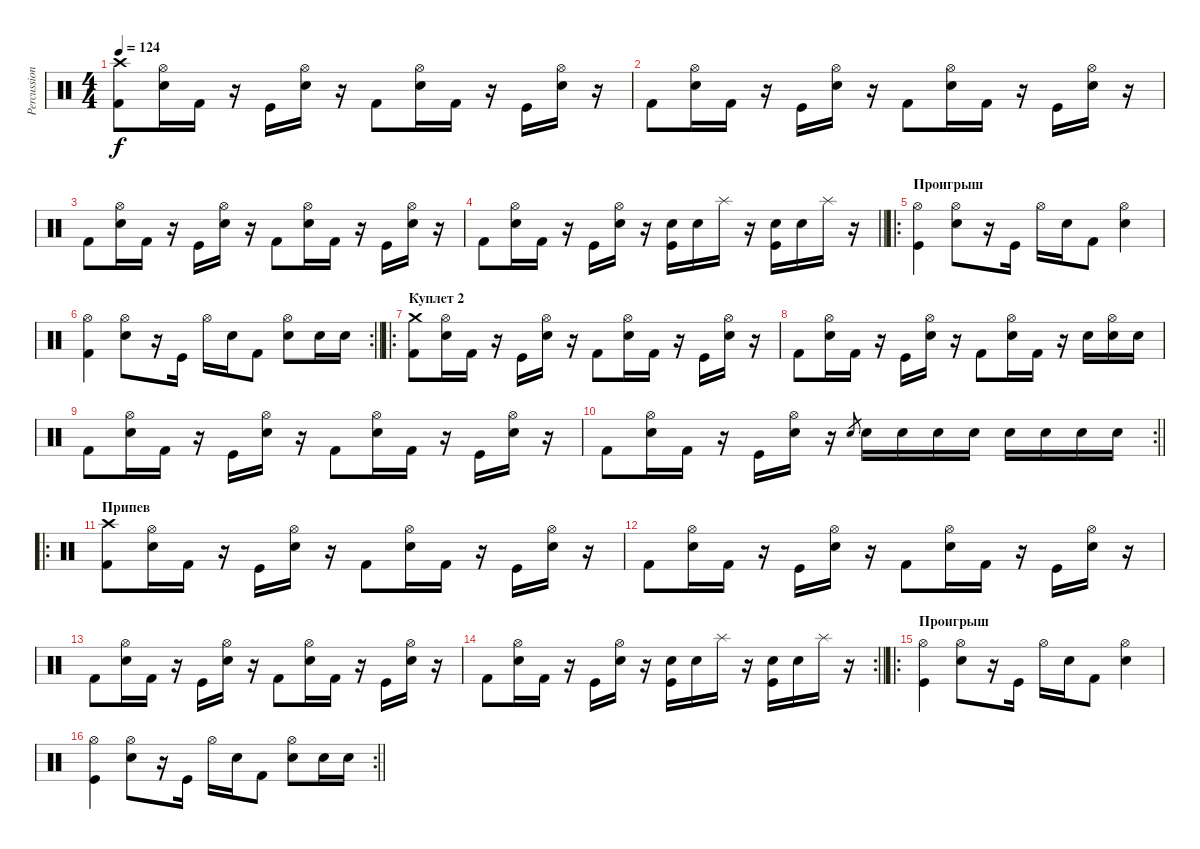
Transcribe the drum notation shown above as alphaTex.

\track ("Percussion" "Percussion") {instrument percussion}
\staff {score}
\articulation defaults
\ts (4 4)
\tempo 124
\clef neutral
\ks c
("Crash high (hit)" "Kick (hit) 2").8{dy f} ("Hi-Hat (open)" "Snare (hit) 2").16 "Kick (hit) 2".16 r.16 "Kick (hit)".16 ("Hi-Hat (open)" "Snare (hit) 2").16 r.16 "Kick (hit) 2".8 ("Hi-Hat (open)" "Snare (hit) 2").16 "Kick (hit) 2".16 r.16 "Kick (hit)".16 ("Hi-Hat (open)" "Snare (hit) 2").16 r.16 |
"Kick (hit) 2".8 ("Hi-Hat (open)" "Snare (hit) 2").16 "Kick (hit) 2".16 r.16 "Kick (hit)".16 ("Hi-Hat (open)" "Snare (hit) 2").16 r.16 "Kick (hit) 2".8 ("Hi-Hat (open)" "Snare (hit) 2").16 "Kick (hit) 2".16 r.16 "Kick (hit)".16 ("Hi-Hat (open)" "Snare (hit) 2").16 r.16 |
"Kick (hit) 2".8 ("Hi-Hat (open)" "Snare (hit) 2").16 "Kick (hit) 2".16 r.16 "Kick (hit)".16 ("Hi-Hat (open)" "Snare (hit) 2").16 r.16 "Kick (hit) 2".8 ("Hi-Hat (open)" "Snare (hit) 2").16 "Kick (hit) 2".16 r.16 "Kick (hit)".16 ("Hi-Hat (open)" "Snare (hit) 2").16 r.16 |
\barLineRight lightlight "Kick (hit) 2".8
("Hi-Hat (open)" "Snare (hit) 2").16 "Kick (hit) 2".16 r.16 "Kick (hit)".16 ("Hi-Hat (open)" "Snare (hit) 2").16 r.16 ("Electric Snare (hit)" "Kick (hit)").16 "Electric Snare (hit)".16 "Splash (hit)".16 r.16 ("Snare (hit) 2" "Kick (hit)").16 "Snare (hit) 2".16 "Splash (hit)".16 r.16 |
\ro
\section ("" "Проигрыш")
("Hi-Hat (open)" "Kick (hit)").4 ("Hi-Hat (open)" "Snare (hit) 2").8 r.16 "Kick (hit)".16 "Hi-Hat (open)".16 "Snare (hit) 2".16 "Kick (hit) 2".8 ("Hi-Hat (open)" "Snare (hit) 2").4 |
\rc 2
\barLineRight lightlight
("Hi-Hat (open)" "Kick (hit) 2").4 ("Hi-Hat (open)" "Snare (hit) 2").8 r.16 "Kick (hit)".16 "Hi-Hat (open)".16 "Snare (hit) 2".16 "Kick (hit) 2".8 ("Hi-Hat (open)" "Snare (hit) 2").8 "Snare (hit) 2".16 "Snare (hit) 2".16 |
\ro
\section ("" "Куплет 2")
("Crash medium (hit)" "Kick (hit) 2").8 ("Hi-Hat (open)" "Snare (hit) 2").16 "Kick (hit) 2".16 r.16 "Kick (hit)".16 ("Hi-Hat (open)" "Snare (hit) 2").16 r.16 "Kick (hit) 2".8 ("Hi-Hat (open)" "Snare (hit) 2").16 "Kick (hit) 2".16 r.16 "Kick (hit)".16 ("Hi-Hat (open)" "Snare (hit) 2").16 r.16 |
"Kick (hit) 2".8 ("Hi-Hat (open)" "Snare (hit) 2").16 "Kick (hit) 2".16 r.16 "Kick (hit)".16 ("Hi-Hat (open)" "Snare (hit) 2").16 r.16 "Kick (hit) 2".8 ("Hi-Hat (open)" "Snare (hit) 2").16 "Kick (hit) 2".16 r.16 "Snare (hit) 2".16 ("Hi-Hat (open)" "Electric Snare (hit)").16 "Snare (hit) 2".16 |
"Kick (hit) 2".8 ("Hi-Hat (open)" "Snare (hit) 2").16 "Kick (hit) 2".16 r.16 "Kick (hit)".16 ("Hi-Hat (open)" "Snare (hit) 2").16 r.16 "Kick (hit) 2".8 ("Hi-Hat (open)" "Snare (hit) 2").16 "Kick (hit) 2".16 r.16 "Kick (hit)".16 ("Hi-Hat (open)" "Snare (hit) 2").16 r.16 |
\rc 2
\barLineRight lightlight "Kick (hit) 2".8
("Hi-Hat (open)" "Snare (hit) 2").16 "Kick (hit) 2".16 r.16 "Kick (hit)".16 ("Hi-Hat (open)" "Snare (hit) 2").16 r.16 "Electric Snare (hit)".8{gr} "Electric Snare (hit)".16 "Electric Snare (hit)".16 "Electric Snare (hit)".16 "Electric Snare (hit)".16 "Snare (hit) 2".16 "Snare (hit) 2".16 "Snare (hit) 2".16 "Snare (hit) 2".16 |
\ro
\section ("" "Припев")
("Crash high (hit)" "Kick (hit) 2").8 ("Hi-Hat (open)" "Snare (hit) 2").16 "Kick (hit) 2".16 r.16 "Kick (hit)".16 ("Hi-Hat (open)" "Snare (hit) 2").16 r.16 "Kick (hit) 2".8 ("Hi-Hat (open)" "Snare (hit) 2").16 "Kick (hit) 2".16 r.16 "Kick (hit)".16 ("Hi-Hat (open)" "Snare (hit) 2").16 r.16 |
"Kick (hit) 2".8 ("Hi-Hat (open)" "Snare (hit) 2").16 "Kick (hit) 2".16 r.16 "Kick (hit)".16 ("Hi-Hat (open)" "Snare (hit) 2").16 r.16 "Kick (hit) 2".8 ("Hi-Hat (open)" "Snare (hit) 2").16 "Kick (hit) 2".16 r.16 "Kick (hit)".16 ("Hi-Hat (open)" "Snare (hit) 2").16 r.16 |
"Kick (hit) 2".8 ("Hi-Hat (open)" "Snare (hit) 2").16 "Kick (hit) 2".16 r.16 "Kick (hit)".16 ("Hi-Hat (open)" "Snare (hit) 2").16 r.16 "Kick (hit) 2".8 ("Hi-Hat (open)" "Snare (hit) 2").16 "Kick (hit) 2".16 r.16 "Kick (hit)".16 ("Hi-Hat (open)" "Snare (hit) 2").16 r.16 |
\rc 2
\barLineRight lightlight "Kick (hit) 2".8
("Hi-Hat (open)" "Snare (hit) 2").16 "Kick (hit) 2".16 r.16 "Kick (hit)".16 ("Hi-Hat (open)" "Snare (hit) 2").16 r.16 ("Electric Snare (hit)" "Kick (hit)").16 "Electric Snare (hit)".16 "Splash (hit)".16 r.16 ("Snare (hit) 2" "Kick (hit)").16 "Snare (hit) 2".16 "Splash (hit)".16 r.16 |
\ro
\section ("" "Проигрыш")
("Hi-Hat (open)" "Kick (hit)").4 ("Hi-Hat (open)" "Snare (hit) 2").8 r.16 "Kick (hit)".16 "Hi-Hat (open)".16 "Snare (hit) 2".16 "Kick (hit) 2".8 ("Hi-Hat (open)" "Snare (hit) 2").4 |
\rc 2
\barLineRight lightlight
("Hi-Hat (open)" "Kick (hit)").4 ("Hi-Hat (open)" "Snare (hit) 2").8 r.16 "Kick (hit)".16 "Hi-Hat (open)".16 "Snare (hit) 2".16 "Kick (hit) 2".8 ("Hi-Hat (open)" "Snare (hit) 2").8 "Snare (hit) 2".16 "Snare (hit) 2".16
